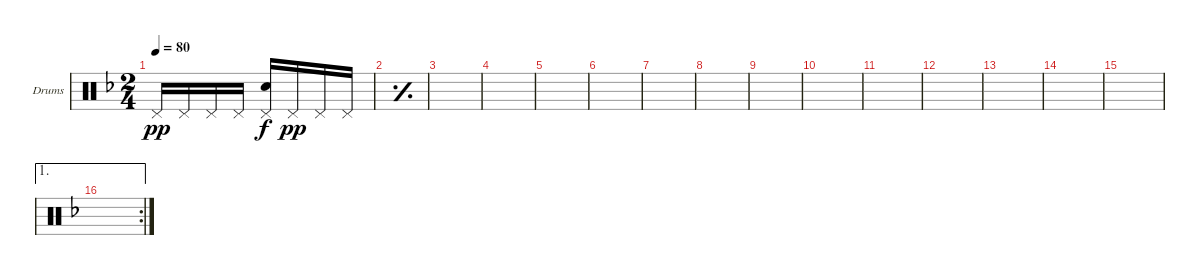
\defaultSystemsLayout 4
\bracketExtendMode groupsimilarinstruments
\firstSystemTrackNameOrientation horizontal
\otherSystemsTrackNameOrientation horizontal
\track ("Drumkit" "Drums") {instrument percussion}
\staff {score}
\articulation defaults
\ts (2 4)
\tempo 80
\clef neutral
\scale
0.5
\ks f "Pedal Hi-Hat (hit)".16{dy pp} "Pedal Hi-Hat (hit)".16 "Pedal Hi-Hat (hit)".16 "Pedal Hi-Hat (hit)".16
("Pedal Hi-Hat (hit)" "Snare (hit) 2").16{dy f} "Pedal Hi-Hat (hit)".16{dy pp} "Pedal Hi-Hat (hit)".16 "Pedal Hi-Hat (hit)".16 |
\simile simple
\scale
0.25 |
\scale
0.25 |
\scale
0.333333 |
\scale
0.333333 |
\scale
0.333333 |
\scale
0.333333 |
\scale
0.333333 |
\scale
0.333333 |
\scale
0.333333 |
\scale
0.333333 |
\scale
0.333333 |
\scale
0.333333 |
\scale
0.333333 |
\scale
0.333333 |
\ae 1
\rc 2
\scale
0.333333
